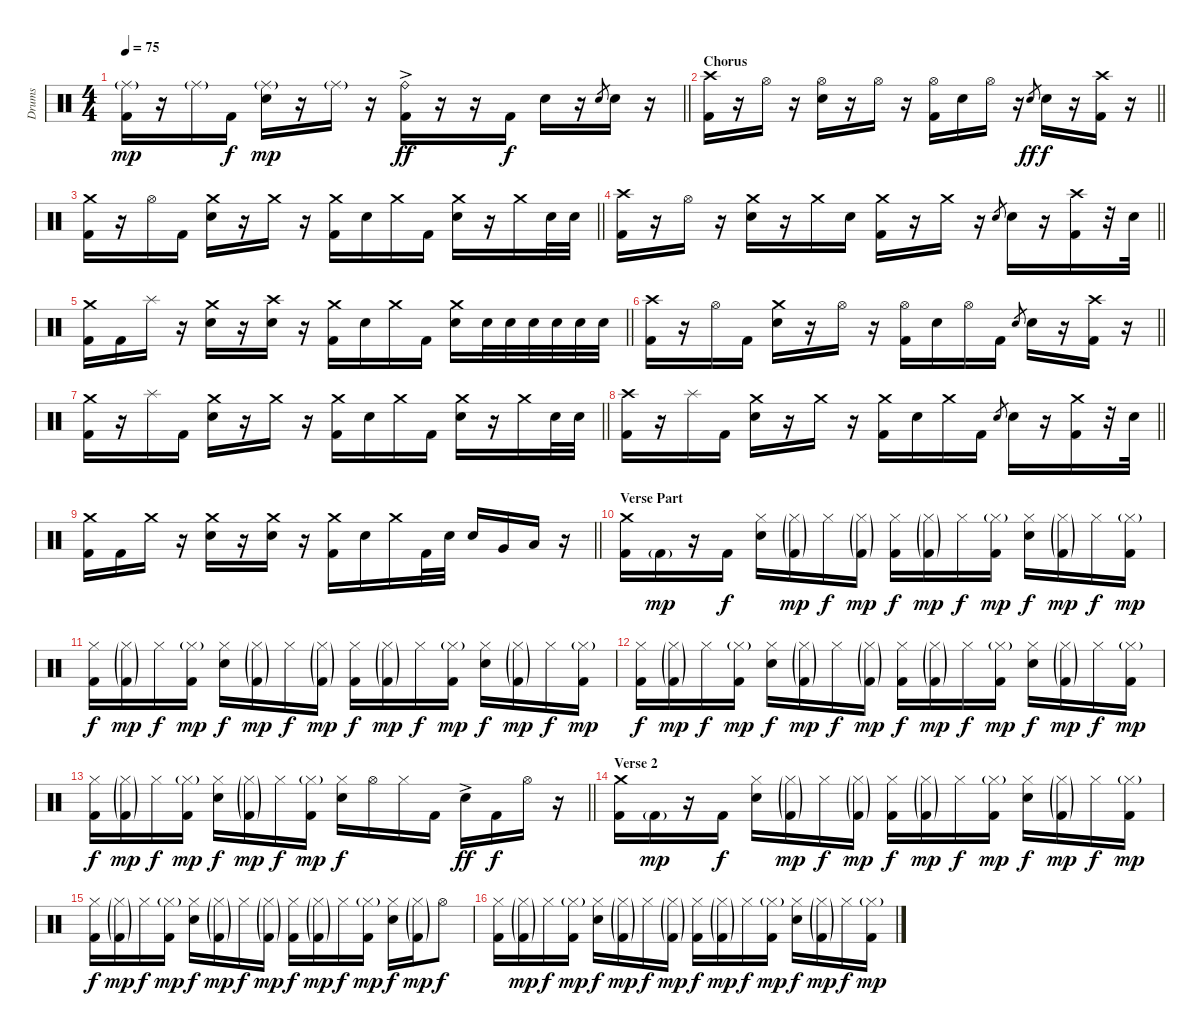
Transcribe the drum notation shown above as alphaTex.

\track ("Drums" "Drums") {instrument percussion}
\staff {score}
\articulation defaults
\ts (4 4)
\tempo 75
\clef neutral
\barLineRight lightlight
\ks c
("Ride (middle)"{g} "Kick (hit) 2").16{dy mp} r.16 "Ride (middle)"{g}.16 "Kick (hit) 2".16{dy f} ("Ride (middle)"{g} "Snare (hit) 2").16{dy mp} r.16 "Ride (middle)"{g}.16 r.16 ("Ride (bell)"{ac} "Kick (hit) 2").16{dy ff} r.16 r.16 "Kick (hit) 2".16{dy f} "Snare (hit) 2".16 r.16 "Snare (hit) 2".8{gr} "Snare (hit) 2".16 r.16 |
\section ("" "Chorus")
\barLineRight lightlight
("Crash high (hit)" "Kick (hit) 2").16 r.16 "Hi-Hat (open)".16 r.16 ("Hi-Hat (open)" "Snare (hit) 2").16 r.16 "Hi-Hat (open)".16 r.16 ("Hi-Hat (open)" "Kick (hit) 2").16 "Snare (hit) 2".16 "Hi-Hat (open)".16 r.16 "Snare (hit) 2".8{gr dy ff} "Snare (hit) 2".16{dy f} r.16 ("Crash high (hit)" "Kick (hit) 2").16 r.16 |
\barLineRight lightlight
("Crash medium (hit)" "Kick (hit) 2").16 r.16 "Hi-Hat (open)".16 "Kick (hit) 2".16 ("Crash medium (hit)" "Snare (hit) 2").16 r.16 "Crash medium (hit)".16 r.16 ("Crash medium (hit)" "Kick (hit) 2").16 "Snare (hit) 2".16 "Crash medium (hit)".16 "Kick (hit) 2".16 ("Crash medium (hit)" "Snare (hit) 2").16 r.16 "Crash medium (hit)".16 "Snare (hit) 2".32 "Snare (hit) 2".32 |
\barLineRight lightlight
("Crash high (hit)" "Kick (hit) 2").16 r.16 "Hi-Hat (open)".16 r.16 ("Crash medium (hit)" "Snare (hit) 2").16 r.16 "Crash medium (hit)".16 "Snare (hit) 2".16 ("Crash medium (hit)" "Kick (hit) 2").16 r.16 "Crash medium (hit)".16 r.16 "Snare (hit) 2".8{gr} "Snare (hit) 2".16 r.16 ("Crash high (hit)" "Kick (hit) 2").16 r.32 "Snare (hit) 2".32 |
\barLineRight lightlight
("Crash medium (hit)" "Kick (hit) 2").16 "Kick (hit) 2".16 "Splash (hit)".16 r.16 ("Crash medium (hit)" "Snare (hit) 2").16 r.16 ("Crash high (hit)" "Snare (hit) 2").16 r.16 ("Crash medium (hit)" "Kick (hit) 2").16 "Snare (hit) 2".16 "Crash medium (hit)".16 "Kick (hit) 2".16 ("Crash medium (hit)" "Snare (hit) 2").16 "Snare (hit) 2".32 "Snare (hit) 2".32 "Snare (hit) 2".32 "Snare (hit) 2".32 "Snare (hit) 2".32 "Snare (hit) 2".32 |
\barLineRight lightlight
("Crash high (hit)" "Kick (hit) 2").16 r.16 "Hi-Hat (open)".16 "Kick (hit) 2".16 ("Crash medium (hit)" "Snare (hit) 2").16 r.16 "Hi-Hat (open)".16 r.16 ("Hi-Hat (open)" "Kick (hit) 2").16 "Snare (hit) 2".16 "Hi-Hat (open)".16 "Kick (hit) 2".16 "Snare (hit) 2".8{gr} "Snare (hit) 2".16 r.16 ("Crash high (hit)" "Kick (hit) 2").16 r.16 |
\barLineRight lightlight
("Crash medium (hit)" "Kick (hit) 2").16 r.16 "Splash (hit)".16 "Kick (hit) 2".16 ("Crash medium (hit)" "Snare (hit) 2").16 r.16 "Crash medium (hit)".16 r.16 ("Crash medium (hit)" "Kick (hit) 2").16 "Snare (hit) 2".16 "Crash medium (hit)".16 "Kick (hit) 2".16 ("Crash medium (hit)" "Snare (hit) 2").16 r.16 "Crash medium (hit)".16 "Snare (hit) 2".32 "Snare (hit) 2".32 |
\barLineRight lightlight
("Crash high (hit)" "Kick (hit) 2").16 r.16 "Splash (hit)".16 "Kick (hit) 2".16 ("Crash medium (hit)" "Snare (hit) 2").16 r.16 "Crash medium (hit)".16 r.16 ("Crash medium (hit)" "Kick (hit) 2").16 "Snare (hit) 2".16 "Crash medium (hit)".16 "Kick (hit) 2".16 "Snare (hit) 2".8{gr} "Snare (hit) 2".16 r.16 ("Crash medium (hit)" "Kick (hit) 2").16 r.32 "Snare (hit) 2".32 |
\barLineRight lightlight
("Crash medium (hit)" "Kick (hit) 2").16 "Kick (hit) 2".16 "Crash medium (hit)".16 r.16 ("Crash medium (hit)" "Snare (hit) 2").16 r.16 ("Crash medium (hit)" "Snare (hit) 2").16 r.16 ("Crash medium (hit)" "Kick (hit) 2").16 "Snare (hit) 2".16 "Crash medium (hit)".16 "Kick (hit) 2".32 "Snare (hit) 2".32 "Snare (hit) 2".16 "Very Low Tom (hit)".16 "Low Floor Tom (hit)".16 r.16 |
\section ("" "Verse Part")
("Crash medium (hit)" "Kick (hit) 2").16 "Kick (hit) 2"{g}.16{dy mp} r.16 "Kick (hit) 2".16{dy f} ("Hi-Hat (closed)" "Snare (hit) 2").16 ("Hi-Hat (closed)"{g} "Kick (hit) 2"{g}).16{dy mp} "Hi-Hat (closed)".16{dy f} ("Hi-Hat (closed)"{g} "Kick (hit) 2"{g}).16{dy mp} ("Hi-Hat (closed)" "Kick (hit) 2").16{dy f} ("Hi-Hat (closed)"{g} "Kick (hit) 2"{g}).16{dy mp} "Hi-Hat (closed)".16{dy f} ("Hi-Hat (closed)"{g} "Kick (hit) 2").16{dy mp} ("Hi-Hat (closed)" "Snare (hit) 2").16{dy f} ("Hi-Hat (closed)"{g} "Kick (hit) 2"{g}).16{dy mp} "Hi-Hat (closed)".16{dy f} ("Hi-Hat (closed)"{g} "Kick (hit) 2").16{dy mp} |
("Hi-Hat (closed)" "Kick (hit) 2").16{dy f} ("Hi-Hat (closed)"{g} "Kick (hit) 2"{g}).16{dy mp} "Hi-Hat (closed)".16{dy f} ("Hi-Hat (closed)"{g} "Kick (hit) 2").16{dy mp} ("Hi-Hat (closed)" "Snare (hit) 2").16{dy f} ("Hi-Hat (closed)"{g} "Kick (hit) 2"{g}).16{dy mp} "Hi-Hat (closed)".16{dy f} ("Hi-Hat (closed)"{g} "Kick (hit) 2"{g}).16{dy mp} ("Hi-Hat (closed)" "Kick (hit) 2").16{dy f} ("Hi-Hat (closed)"{g} "Kick (hit) 2"{g}).16{dy mp} "Hi-Hat (closed)".16{dy f} ("Hi-Hat (closed)"{g} "Kick (hit) 2").16{dy mp} ("Hi-Hat (closed)" "Snare (hit) 2").16{dy f} ("Hi-Hat (closed)"{g} "Kick (hit) 2"{g}).16{dy mp} "Hi-Hat (closed)".16{dy f} ("Hi-Hat (closed)"{g} "Kick (hit) 2").16{dy mp} |
("Hi-Hat (closed)" "Kick (hit) 2").16{dy f} ("Hi-Hat (closed)"{g} "Kick (hit) 2"{g}).16{dy mp} "Hi-Hat (closed)".16{dy f} ("Hi-Hat (closed)"{g} "Kick (hit) 2").16{dy mp} ("Hi-Hat (closed)" "Snare (hit) 2").16{dy f} ("Hi-Hat (closed)"{g} "Kick (hit) 2"{g}).16{dy mp} "Hi-Hat (closed)".16{dy f} ("Hi-Hat (closed)"{g} "Kick (hit) 2"{g}).16{dy mp} ("Hi-Hat (closed)" "Kick (hit) 2").16{dy f} ("Hi-Hat (closed)"{g} "Kick (hit) 2"{g}).16{dy mp} "Hi-Hat (closed)".16{dy f} ("Hi-Hat (closed)"{g} "Kick (hit) 2").16{dy mp} ("Hi-Hat (closed)" "Snare (hit) 2").16{dy f} ("Hi-Hat (closed)"{g} "Kick (hit) 2"{g}).16{dy mp} "Hi-Hat (closed)".16{dy f} ("Hi-Hat (closed)"{g} "Kick (hit) 2").16{dy mp} |
\barLineRight lightlight
("Hi-Hat (closed)" "Kick (hit) 2").16{dy f} ("Hi-Hat (closed)"{g} "Kick (hit) 2"{g}).16{dy mp} "Hi-Hat (closed)".16{dy f} ("Hi-Hat (closed)"{g} "Kick (hit) 2").16{dy mp} ("Hi-Hat (closed)" "Snare (hit) 2").16{dy f} ("Hi-Hat (closed)"{g} "Kick (hit) 2"{g}).16{dy mp} "Hi-Hat (closed)".16{dy f} ("Hi-Hat (closed)"{g} "Kick (hit) 2").16{dy mp} ("Hi-Hat (closed)" "Snare (hit) 2").16{dy f} "Hi-Hat (open)".16 "Hi-Hat (closed)".16 "Kick (hit) 2".16 "Snare (hit) 2"{ac}.16{dy ff} "Kick (hit) 2".16{dy f} "Hi-Hat (open)".16 r.16 |
\section ("" "Verse 2")
("Crash medium (hit)" "Kick (hit) 2").16 "Kick (hit) 2"{g}.16{dy mp} r.16 "Kick (hit) 2".16{dy f} ("Hi-Hat (closed)" "Snare (hit) 2").16 ("Hi-Hat (closed)"{g} "Kick (hit) 2"{g}).16{dy mp} "Hi-Hat (closed)".16{dy f} ("Hi-Hat (closed)"{g} "Kick (hit) 2"{g}).16{dy mp} ("Hi-Hat (closed)" "Kick (hit) 2").16{dy f} ("Hi-Hat (closed)"{g} "Kick (hit) 2"{g}).16{dy mp} "Hi-Hat (closed)".16{dy f} ("Hi-Hat (closed)"{g} "Kick (hit) 2").16{dy mp} ("Hi-Hat (closed)" "Snare (hit) 2").16{dy f} ("Hi-Hat (closed)"{g} "Kick (hit) 2"{g}).16{dy mp} "Hi-Hat (closed)".16{dy f} ("Hi-Hat (closed)"{g} "Kick (hit) 2").16{dy mp} |
("Hi-Hat (closed)" "Kick (hit) 2").16{dy f} ("Hi-Hat (closed)"{g} "Kick (hit) 2"{g}).16{dy mp} "Hi-Hat (closed)".16{dy f} ("Hi-Hat (closed)"{g} "Kick (hit) 2").16{dy mp} ("Hi-Hat (closed)" "Snare (hit) 2").16{dy f} ("Hi-Hat (closed)"{g} "Kick (hit) 2"{g}).16{dy mp} "Hi-Hat (closed)".16{dy f} ("Hi-Hat (closed)"{g} "Kick (hit) 2"{g}).16{dy mp} ("Hi-Hat (closed)" "Kick (hit) 2").16{dy f} ("Hi-Hat (closed)"{g} "Kick (hit) 2"{g}).16{dy mp} "Hi-Hat (closed)".16{dy f} ("Hi-Hat (closed)"{g} "Kick (hit) 2").16{dy mp} ("Hi-Hat (closed)" "Snare (hit) 2").16{dy f} ("Hi-Hat (closed)"{g} "Kick (hit) 2"{g}).16{dy mp} "Hi-Hat (open)".8{dy f} |
("Hi-Hat (closed)" "Kick (hit) 2").16 ("Hi-Hat (closed)"{g} "Kick (hit) 2"{g}).16{dy mp} "Hi-Hat (closed)".16{dy f} ("Hi-Hat (closed)"{g} "Kick (hit) 2").16{dy mp} ("Hi-Hat (closed)" "Snare (hit) 2").16{dy f} ("Hi-Hat (closed)"{g} "Kick (hit) 2"{g}).16{dy mp} "Hi-Hat (closed)".16{dy f} ("Hi-Hat (closed)"{g} "Kick (hit) 2"{g}).16{dy mp} ("Hi-Hat (closed)" "Kick (hit) 2").16{dy f} ("Hi-Hat (closed)"{g} "Kick (hit) 2"{g}).16{dy mp} "Hi-Hat (closed)".16{dy f} ("Hi-Hat (closed)"{g} "Kick (hit) 2").16{dy mp} ("Hi-Hat (closed)" "Snare (hit) 2").16{dy f} ("Hi-Hat (closed)"{g} "Kick (hit) 2"{g}).16{dy mp} "Hi-Hat (closed)".16{dy f} ("Hi-Hat (closed)"{g} "Kick (hit) 2").16{dy mp}
